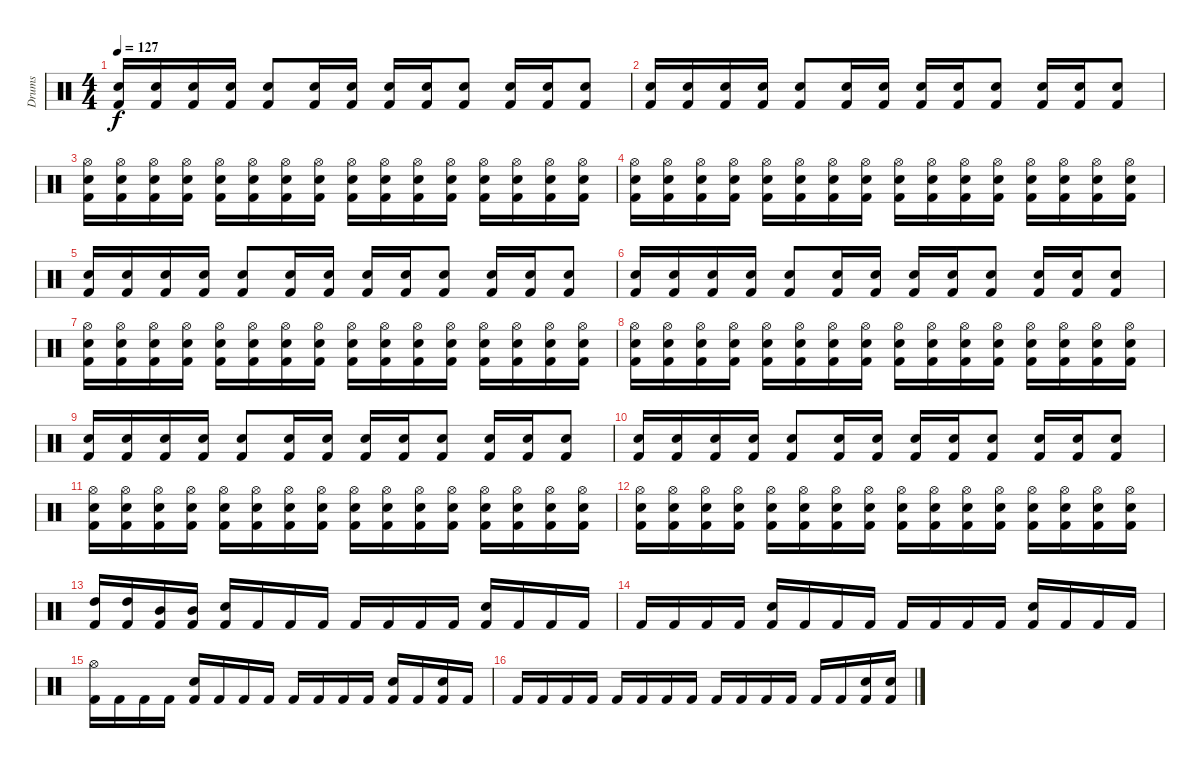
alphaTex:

\track ("Drums" "Drums") {instrument percussion}
\staff {score}
\articulation defaults
\ts (4 4)
\tempo 127
\clef neutral
\ks c
("Snare (hit) 2" "Kick (hit) 2").16{dy f} ("Snare (hit) 2" "Kick (hit) 2").16 ("Snare (hit) 2" "Kick (hit) 2").16 ("Snare (hit) 2" "Kick (hit) 2").16 ("Snare (hit) 2" "Kick (hit) 2").8 ("Snare (hit) 2" "Kick (hit) 2").16 ("Snare (hit) 2" "Kick (hit) 2").16 ("Snare (hit) 2" "Kick (hit) 2").16 ("Snare (hit) 2" "Kick (hit) 2").16 ("Snare (hit) 2" "Kick (hit) 2").8 ("Snare (hit) 2" "Kick (hit) 2").16 ("Snare (hit) 2" "Kick (hit) 2").16 ("Snare (hit) 2" "Kick (hit) 2").8 |
("Snare (hit) 2" "Kick (hit) 2").16 ("Snare (hit) 2" "Kick (hit) 2").16 ("Snare (hit) 2" "Kick (hit) 2").16 ("Snare (hit) 2" "Kick (hit) 2").16 ("Snare (hit) 2" "Kick (hit) 2").8 ("Snare (hit) 2" "Kick (hit) 2").16 ("Snare (hit) 2" "Kick (hit) 2").16 ("Snare (hit) 2" "Kick (hit) 2").16 ("Snare (hit) 2" "Kick (hit) 2").16 ("Snare (hit) 2" "Kick (hit) 2").8 ("Snare (hit) 2" "Kick (hit) 2").16 ("Snare (hit) 2" "Kick (hit) 2").16 ("Snare (hit) 2" "Kick (hit) 2").8 |
("Hi-Hat (open)" "Snare (hit) 2" "Kick (hit) 2").16 ("Hi-Hat (open)" "Snare (hit) 2" "Kick (hit) 2").16 ("Hi-Hat (open)" "Snare (hit) 2" "Kick (hit) 2").16 ("Hi-Hat (open)" "Snare (hit) 2" "Kick (hit) 2").16 ("Hi-Hat (open)" "Snare (hit) 2" "Kick (hit) 2").16 ("Hi-Hat (open)" "Snare (hit) 2" "Kick (hit) 2").16 ("Hi-Hat (open)" "Snare (hit) 2" "Kick (hit) 2").16 ("Hi-Hat (open)" "Snare (hit) 2" "Kick (hit) 2").16 ("Hi-Hat (open)" "Snare (hit) 2" "Kick (hit) 2").16 ("Hi-Hat (open)" "Snare (hit) 2" "Kick (hit) 2").16 ("Hi-Hat (open)" "Snare (hit) 2" "Kick (hit) 2").16 ("Hi-Hat (open)" "Snare (hit) 2" "Kick (hit) 2").16 ("Hi-Hat (open)" "Snare (hit) 2" "Kick (hit) 2").16 ("Hi-Hat (open)" "Snare (hit) 2" "Kick (hit) 2").16 ("Hi-Hat (open)" "Snare (hit) 2" "Kick (hit) 2").16 ("Hi-Hat (open)" "Snare (hit) 2" "Kick (hit) 2").16 |
("Hi-Hat (open)" "Snare (hit) 2" "Kick (hit) 2").16 ("Hi-Hat (open)" "Snare (hit) 2" "Kick (hit) 2").16 ("Hi-Hat (open)" "Snare (hit) 2" "Kick (hit) 2").16 ("Hi-Hat (open)" "Snare (hit) 2" "Kick (hit) 2").16 ("Hi-Hat (open)" "Snare (hit) 2" "Kick (hit) 2").16 ("Hi-Hat (open)" "Snare (hit) 2" "Kick (hit) 2").16 ("Hi-Hat (open)" "Snare (hit) 2" "Kick (hit) 2").16 ("Hi-Hat (open)" "Snare (hit) 2" "Kick (hit) 2").16 ("Hi-Hat (open)" "Snare (hit) 2" "Kick (hit) 2").16 ("Hi-Hat (open)" "Snare (hit) 2" "Kick (hit) 2").16 ("Hi-Hat (open)" "Snare (hit) 2" "Kick (hit) 2").16 ("Hi-Hat (open)" "Snare (hit) 2" "Kick (hit) 2").16 ("Hi-Hat (open)" "Snare (hit) 2" "Kick (hit) 2").16 ("Hi-Hat (open)" "Snare (hit) 2" "Kick (hit) 2").16 ("Hi-Hat (open)" "Snare (hit) 2" "Kick (hit) 2").16 ("Hi-Hat (open)" "Snare (hit) 2" "Kick (hit) 2").16 |
("Snare (hit) 2" "Kick (hit) 2").16 ("Snare (hit) 2" "Kick (hit) 2").16 ("Snare (hit) 2" "Kick (hit) 2").16 ("Snare (hit) 2" "Kick (hit) 2").16 ("Snare (hit) 2" "Kick (hit) 2").8 ("Snare (hit) 2" "Kick (hit) 2").16 ("Snare (hit) 2" "Kick (hit) 2").16 ("Snare (hit) 2" "Kick (hit) 2").16 ("Snare (hit) 2" "Kick (hit) 2").16 ("Snare (hit) 2" "Kick (hit) 2").8 ("Snare (hit) 2" "Kick (hit) 2").16 ("Snare (hit) 2" "Kick (hit) 2").16 ("Snare (hit) 2" "Kick (hit) 2").8 |
("Snare (hit) 2" "Kick (hit) 2").16 ("Snare (hit) 2" "Kick (hit) 2").16 ("Snare (hit) 2" "Kick (hit) 2").16 ("Snare (hit) 2" "Kick (hit) 2").16 ("Snare (hit) 2" "Kick (hit) 2").8 ("Snare (hit) 2" "Kick (hit) 2").16 ("Snare (hit) 2" "Kick (hit) 2").16 ("Snare (hit) 2" "Kick (hit) 2").16 ("Snare (hit) 2" "Kick (hit) 2").16 ("Snare (hit) 2" "Kick (hit) 2").8 ("Snare (hit) 2" "Kick (hit) 2").16 ("Snare (hit) 2" "Kick (hit) 2").16 ("Snare (hit) 2" "Kick (hit) 2").8 |
("Hi-Hat (open)" "Snare (hit) 2" "Kick (hit) 2").16 ("Hi-Hat (open)" "Snare (hit) 2" "Kick (hit) 2").16 ("Hi-Hat (open)" "Snare (hit) 2" "Kick (hit) 2").16 ("Hi-Hat (open)" "Snare (hit) 2" "Kick (hit) 2").16 ("Hi-Hat (open)" "Snare (hit) 2" "Kick (hit) 2").16 ("Hi-Hat (open)" "Snare (hit) 2" "Kick (hit) 2").16 ("Hi-Hat (open)" "Snare (hit) 2" "Kick (hit) 2").16 ("Hi-Hat (open)" "Snare (hit) 2" "Kick (hit) 2").16 ("Hi-Hat (open)" "Snare (hit) 2" "Kick (hit) 2").16 ("Hi-Hat (open)" "Snare (hit) 2" "Kick (hit) 2").16 ("Hi-Hat (open)" "Snare (hit) 2" "Kick (hit) 2").16 ("Hi-Hat (open)" "Snare (hit) 2" "Kick (hit) 2").16 ("Hi-Hat (open)" "Snare (hit) 2" "Kick (hit) 2").16 ("Hi-Hat (open)" "Snare (hit) 2" "Kick (hit) 2").16 ("Hi-Hat (open)" "Snare (hit) 2" "Kick (hit) 2").16 ("Hi-Hat (open)" "Snare (hit) 2" "Kick (hit) 2").16 |
("Hi-Hat (open)" "Snare (hit) 2" "Kick (hit) 2").16 ("Hi-Hat (open)" "Snare (hit) 2" "Kick (hit) 2").16 ("Hi-Hat (open)" "Snare (hit) 2" "Kick (hit) 2").16 ("Hi-Hat (open)" "Snare (hit) 2" "Kick (hit) 2").16 ("Hi-Hat (open)" "Snare (hit) 2" "Kick (hit) 2").16 ("Hi-Hat (open)" "Snare (hit) 2" "Kick (hit) 2").16 ("Hi-Hat (open)" "Snare (hit) 2" "Kick (hit) 2").16 ("Hi-Hat (open)" "Snare (hit) 2" "Kick (hit) 2").16 ("Hi-Hat (open)" "Snare (hit) 2" "Kick (hit) 2").16 ("Hi-Hat (open)" "Snare (hit) 2" "Kick (hit) 2").16 ("Hi-Hat (open)" "Snare (hit) 2" "Kick (hit) 2").16 ("Hi-Hat (open)" "Snare (hit) 2" "Kick (hit) 2").16 ("Hi-Hat (open)" "Snare (hit) 2" "Kick (hit) 2").16 ("Hi-Hat (open)" "Snare (hit) 2" "Kick (hit) 2").16 ("Hi-Hat (open)" "Snare (hit) 2" "Kick (hit) 2").16 ("Hi-Hat (open)" "Snare (hit) 2" "Kick (hit) 2").16 |
("Snare (hit) 2" "Kick (hit) 2").16 ("Snare (hit) 2" "Kick (hit) 2").16 ("Snare (hit) 2" "Kick (hit) 2").16 ("Snare (hit) 2" "Kick (hit) 2").16 ("Snare (hit) 2" "Kick (hit) 2").8 ("Snare (hit) 2" "Kick (hit) 2").16 ("Snare (hit) 2" "Kick (hit) 2").16 ("Snare (hit) 2" "Kick (hit) 2").16 ("Snare (hit) 2" "Kick (hit) 2").16 ("Snare (hit) 2" "Kick (hit) 2").8 ("Snare (hit) 2" "Kick (hit) 2").16 ("Snare (hit) 2" "Kick (hit) 2").16 ("Snare (hit) 2" "Kick (hit) 2").8 |
("Snare (hit) 2" "Kick (hit) 2").16 ("Snare (hit) 2" "Kick (hit) 2").16 ("Snare (hit) 2" "Kick (hit) 2").16 ("Snare (hit) 2" "Kick (hit) 2").16 ("Snare (hit) 2" "Kick (hit) 2").8 ("Snare (hit) 2" "Kick (hit) 2").16 ("Snare (hit) 2" "Kick (hit) 2").16 ("Snare (hit) 2" "Kick (hit) 2").16 ("Snare (hit) 2" "Kick (hit) 2").16 ("Snare (hit) 2" "Kick (hit) 2").8 ("Snare (hit) 2" "Kick (hit) 2").16 ("Snare (hit) 2" "Kick (hit) 2").16 ("Snare (hit) 2" "Kick (hit) 2").8 |
("Hi-Hat (open)" "Snare (hit) 2" "Kick (hit) 2").16 ("Hi-Hat (open)" "Snare (hit) 2" "Kick (hit) 2").16 ("Hi-Hat (open)" "Snare (hit) 2" "Kick (hit) 2").16 ("Hi-Hat (open)" "Snare (hit) 2" "Kick (hit) 2").16 ("Hi-Hat (open)" "Snare (hit) 2" "Kick (hit) 2").16 ("Hi-Hat (open)" "Snare (hit) 2" "Kick (hit) 2").16 ("Hi-Hat (open)" "Snare (hit) 2" "Kick (hit) 2").16 ("Hi-Hat (open)" "Snare (hit) 2" "Kick (hit) 2").16 ("Hi-Hat (open)" "Snare (hit) 2" "Kick (hit) 2").16 ("Hi-Hat (open)" "Snare (hit) 2" "Kick (hit) 2").16 ("Hi-Hat (open)" "Snare (hit) 2" "Kick (hit) 2").16 ("Hi-Hat (open)" "Snare (hit) 2" "Kick (hit) 2").16 ("Hi-Hat (open)" "Snare (hit) 2" "Kick (hit) 2").16 ("Hi-Hat (open)" "Snare (hit) 2" "Kick (hit) 2").16 ("Hi-Hat (open)" "Snare (hit) 2" "Kick (hit) 2").16 ("Hi-Hat (open)" "Snare (hit) 2" "Kick (hit) 2").16 |
("Hi-Hat (open)" "Snare (hit) 2" "Kick (hit) 2").16 ("Hi-Hat (open)" "Snare (hit) 2" "Kick (hit) 2").16 ("Hi-Hat (open)" "Snare (hit) 2" "Kick (hit) 2").16 ("Hi-Hat (open)" "Snare (hit) 2" "Kick (hit) 2").16 ("Hi-Hat (open)" "Snare (hit) 2" "Kick (hit) 2").16 ("Hi-Hat (open)" "Snare (hit) 2" "Kick (hit) 2").16 ("Hi-Hat (open)" "Snare (hit) 2" "Kick (hit) 2").16 ("Hi-Hat (open)" "Snare (hit) 2" "Kick (hit) 2").16 ("Hi-Hat (open)" "Snare (hit) 2" "Kick (hit) 2").16 ("Hi-Hat (open)" "Snare (hit) 2" "Kick (hit) 2").16 ("Hi-Hat (open)" "Snare (hit) 2" "Kick (hit) 2").16 ("Hi-Hat (open)" "Snare (hit) 2" "Kick (hit) 2").16 ("Hi-Hat (open)" "Snare (hit) 2" "Kick (hit) 2").16 ("Hi-Hat (open)" "Snare (hit) 2" "Kick (hit) 2").16 ("Hi-Hat (open)" "Snare (hit) 2" "Kick (hit) 2").16 ("Hi-Hat (open)" "Snare (hit) 2" "Kick (hit) 2").16 |
("High Tom (hit)" "Kick (hit) 2").16 ("High Tom (hit)" "Kick (hit) 2").16 ("Mid Tom (hit)" "Kick (hit) 2").16 ("Mid Tom (hit)" "Kick (hit) 2").16 ("Snare (hit) 2" "Kick (hit) 2").16 "Kick (hit) 2".16 "Kick (hit) 2".16 "Kick (hit) 2".16 "Kick (hit) 2".16 "Kick (hit) 2".16 "Kick (hit) 2".16 "Kick (hit) 2".16 ("Snare (hit) 2" "Kick (hit) 2").16 "Kick (hit) 2".16 "Kick (hit) 2".16 "Kick (hit) 2".16 |
"Kick (hit) 2".16 "Kick (hit) 2".16 "Kick (hit) 2".16 "Kick (hit) 2".16 ("Snare (hit) 2" "Kick (hit) 2").16 "Kick (hit) 2".16 "Kick (hit) 2".16 "Kick (hit) 2".16 "Kick (hit) 2".16 "Kick (hit) 2".16 "Kick (hit) 2".16 "Kick (hit) 2".16 ("Snare (hit) 2" "Kick (hit) 2").16 "Kick (hit) 2".16 "Kick (hit) 2".16 "Kick (hit) 2".16 |
("Hi-Hat (open)" "Kick (hit) 2").16 "Kick (hit) 2".16 "Kick (hit) 2".16 "Kick (hit) 2".16 ("Snare (hit) 2" "Kick (hit) 2").16 "Kick (hit) 2".16 "Kick (hit) 2".16 "Kick (hit) 2".16 "Kick (hit) 2".16 "Kick (hit) 2".16 "Kick (hit) 2".16 "Kick (hit) 2".16 ("Snare (hit) 2" "Kick (hit) 2").16 "Kick (hit) 2".16 ("Snare (hit) 2" "Kick (hit) 2").16 "Kick (hit) 2".16 |
"Kick (hit) 2".16 "Kick (hit) 2".16 "Kick (hit) 2".16 "Kick (hit) 2".16 "Kick (hit) 2".16 "Kick (hit) 2".16 "Kick (hit) 2".16 "Kick (hit) 2".16 "Kick (hit) 2".16 "Kick (hit) 2".16 "Kick (hit) 2".16 "Kick (hit) 2".16 "Kick (hit) 2".16 "Kick (hit) 2".16 ("Snare (hit) 2" "Kick (hit) 2").16 ("Snare (hit) 2" "Kick (hit) 2").16
